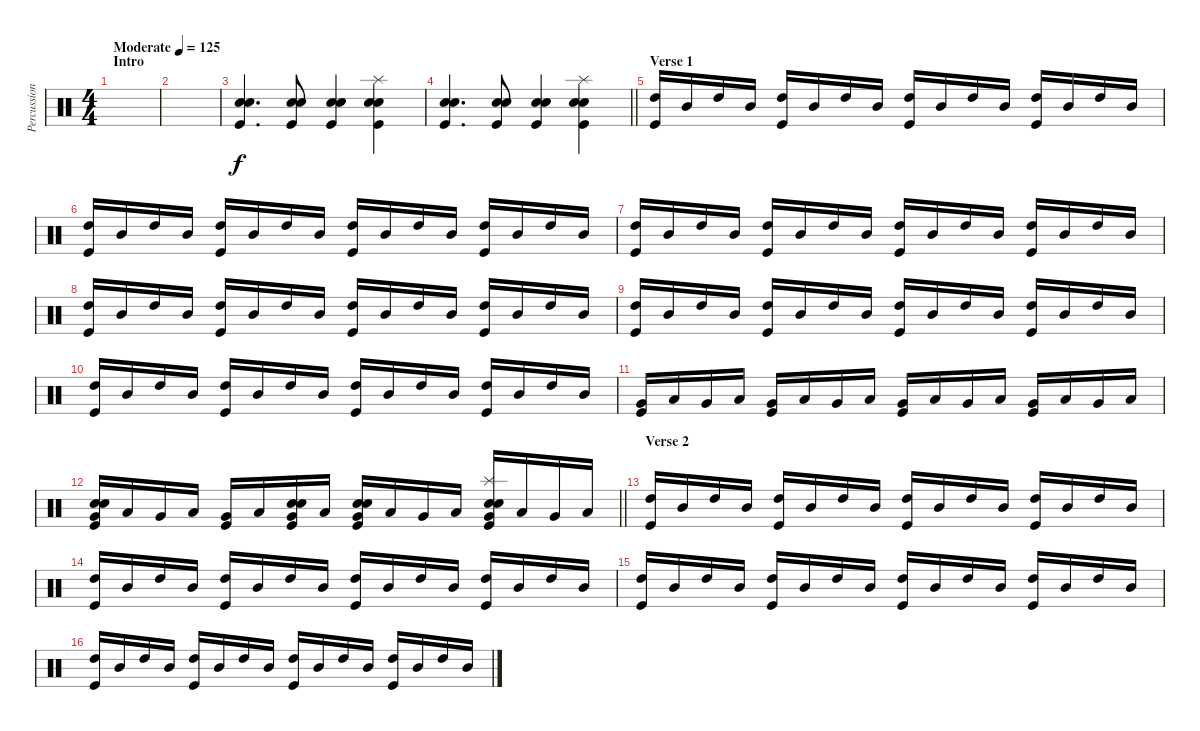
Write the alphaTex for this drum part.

\track ("Percussions" "Percussion") {instrument percussion}
\staff {score}
\articulation defaults
\ts (4 4)
\section ("" "Intro")
\tempo (125 "Moderate")
\clef neutral
\ks c
|
|
("Snare (hit) 2" "Electric Snare (hit)" "Kick (hit)").4{d} ("Snare (hit) 2" "Electric Snare (hit)" "Kick (hit)").8 ("Snare (hit) 2" "Electric Snare (hit)" "Kick (hit)").4 ("Snare (hit) 2" "Electric Snare (hit)" "Splash (hit)" "Kick (hit)").4 |
\barLineRight lightlight
("Snare (hit) 2" "Electric Snare (hit)" "Kick (hit)").4{d} ("Snare (hit) 2" "Electric Snare (hit)" "Kick (hit)").8 ("Snare (hit) 2" "Electric Snare (hit)" "Kick (hit)").4 ("Snare (hit) 2" "Electric Snare (hit)" "Splash (hit)" "Kick (hit)").4 |
\section ("" "Verse 1")
("High Tom (hit)" "Kick (hit)").16 "Mid Tom (hit)".16 "High Tom (hit)".16 "Mid Tom (hit)".16 ("High Tom (hit)" "Kick (hit)").16 "Mid Tom (hit)".16 "High Tom (hit)".16 "Mid Tom (hit)".16 ("High Tom (hit)" "Kick (hit)").16 "Mid Tom (hit)".16 "High Tom (hit)".16 "Mid Tom (hit)".16 ("High Tom (hit)" "Kick (hit)").16 "Mid Tom (hit)".16 "High Tom (hit)".16 "Mid Tom (hit)".16 |
("High Tom (hit)" "Kick (hit)").16 "Mid Tom (hit)".16 "High Tom (hit)".16 "Mid Tom (hit)".16 ("High Tom (hit)" "Kick (hit)").16 "Mid Tom (hit)".16 "High Tom (hit)".16 "Mid Tom (hit)".16 ("High Tom (hit)" "Kick (hit)").16 "Mid Tom (hit)".16 "High Tom (hit)".16 "Mid Tom (hit)".16 ("High Tom (hit)" "Kick (hit)").16 "Mid Tom (hit)".16 "High Tom (hit)".16 "Mid Tom (hit)".16 |
("High Tom (hit)" "Kick (hit)").16 "Mid Tom (hit)".16 "High Tom (hit)".16 "Mid Tom (hit)".16 ("High Tom (hit)" "Kick (hit)").16 "Mid Tom (hit)".16 "High Tom (hit)".16 "Mid Tom (hit)".16 ("High Tom (hit)" "Kick (hit)").16 "Mid Tom (hit)".16 "High Tom (hit)".16 "Mid Tom (hit)".16 ("High Tom (hit)" "Kick (hit)").16 "Mid Tom (hit)".16 "High Tom (hit)".16 "Mid Tom (hit)".16 |
("High Tom (hit)" "Kick (hit)").16 "Mid Tom (hit)".16 "High Tom (hit)".16 "Mid Tom (hit)".16 ("High Tom (hit)" "Kick (hit)").16 "Mid Tom (hit)".16 "High Tom (hit)".16 "Mid Tom (hit)".16 ("High Tom (hit)" "Kick (hit)").16 "Mid Tom (hit)".16 "High Tom (hit)".16 "Mid Tom (hit)".16 ("High Tom (hit)" "Kick (hit)").16 "Mid Tom (hit)".16 "High Tom (hit)".16 "Mid Tom (hit)".16 |
("High Tom (hit)" "Kick (hit)").16 "Mid Tom (hit)".16 "High Tom (hit)".16 "Mid Tom (hit)".16 ("High Tom (hit)" "Kick (hit)").16 "Mid Tom (hit)".16 "High Tom (hit)".16 "Mid Tom (hit)".16 ("High Tom (hit)" "Kick (hit)").16 "Mid Tom (hit)".16 "High Tom (hit)".16 "Mid Tom (hit)".16 ("High Tom (hit)" "Kick (hit)").16 "Mid Tom (hit)".16 "High Tom (hit)".16 "Mid Tom (hit)".16 |
("High Tom (hit)" "Kick (hit)").16 "Mid Tom (hit)".16 "High Tom (hit)".16 "Mid Tom (hit)".16 ("High Tom (hit)" "Kick (hit)").16 "Mid Tom (hit)".16 "High Tom (hit)".16 "Mid Tom (hit)".16 ("High Tom (hit)" "Kick (hit)").16 "Mid Tom (hit)".16 "High Tom (hit)".16 "Mid Tom (hit)".16 ("High Tom (hit)" "Kick (hit)").16 "Mid Tom (hit)".16 "High Tom (hit)".16 "Mid Tom (hit)".16 |
("Very Low Tom (hit)" "Kick (hit)").16 "Low Tom (hit)".16 "Very Low Tom (hit)".16 "Low Tom (hit)".16 ("Very Low Tom (hit)" "Kick (hit)").16 "Low Tom (hit)".16 "Very Low Tom (hit)".16 "Low Tom (hit)".16 ("Very Low Tom (hit)" "Kick (hit)").16 "Low Tom (hit)".16 "Very Low Tom (hit)".16 "Low Tom (hit)".16 ("Very Low Tom (hit)" "Kick (hit)").16 "Low Tom (hit)".16 "Very Low Tom (hit)".16 "Low Tom (hit)".16 |
\barLineRight lightlight
("Snare (hit) 2" "Electric Snare (hit)" "Very Low Tom (hit)" "Kick (hit)").16 "Low Tom (hit)".16 "Very Low Tom (hit)".16 "Low Tom (hit)".16 ("Very Low Tom (hit)" "Kick (hit)").16 "Low Tom (hit)".16 ("Snare (hit) 2" "Electric Snare (hit)" "Very Low Tom (hit)" "Kick (hit)").16 "Low Tom (hit)".16 ("Snare (hit) 2" "Electric Snare (hit)" "Very Low Tom (hit)" "Kick (hit)").16 "Low Tom (hit)".16 "Very Low Tom (hit)".16 "Low Tom (hit)".16 ("Snare (hit) 2" "Electric Snare (hit)" "Splash (hit)" "Very Low Tom (hit)" "Kick (hit)").16 "Low Tom (hit)".16 "Very Low Tom (hit)".16 "Low Tom (hit)".16 |
\section ("" "Verse 2")
("High Tom (hit)" "Kick (hit)").16 "Mid Tom (hit)".16 "High Tom (hit)".16 "Mid Tom (hit)".16 ("High Tom (hit)" "Kick (hit)").16 "Mid Tom (hit)".16 "High Tom (hit)".16 "Mid Tom (hit)".16 ("High Tom (hit)" "Kick (hit)").16 "Mid Tom (hit)".16 "High Tom (hit)".16 "Mid Tom (hit)".16 ("High Tom (hit)" "Kick (hit)").16 "Mid Tom (hit)".16 "High Tom (hit)".16 "Mid Tom (hit)".16 |
("High Tom (hit)" "Kick (hit)").16 "Mid Tom (hit)".16 "High Tom (hit)".16 "Mid Tom (hit)".16 ("High Tom (hit)" "Kick (hit)").16 "Mid Tom (hit)".16 "High Tom (hit)".16 "Mid Tom (hit)".16 ("High Tom (hit)" "Kick (hit)").16 "Mid Tom (hit)".16 "High Tom (hit)".16 "Mid Tom (hit)".16 ("High Tom (hit)" "Kick (hit)").16 "Mid Tom (hit)".16 "High Tom (hit)".16 "Mid Tom (hit)".16 |
("High Tom (hit)" "Kick (hit)").16 "Mid Tom (hit)".16 "High Tom (hit)".16 "Mid Tom (hit)".16 ("High Tom (hit)" "Kick (hit)").16 "Mid Tom (hit)".16 "High Tom (hit)".16 "Mid Tom (hit)".16 ("High Tom (hit)" "Kick (hit)").16 "Mid Tom (hit)".16 "High Tom (hit)".16 "Mid Tom (hit)".16 ("High Tom (hit)" "Kick (hit)").16 "Mid Tom (hit)".16 "High Tom (hit)".16 "Mid Tom (hit)".16 |
("High Tom (hit)" "Kick (hit)").16 "Mid Tom (hit)".16 "High Tom (hit)".16 "Mid Tom (hit)".16 ("High Tom (hit)" "Kick (hit)").16 "Mid Tom (hit)".16 "High Tom (hit)".16 "Mid Tom (hit)".16 ("High Tom (hit)" "Kick (hit)").16 "Mid Tom (hit)".16 "High Tom (hit)".16 "Mid Tom (hit)".16 ("High Tom (hit)" "Kick (hit)").16 "Mid Tom (hit)".16 "High Tom (hit)".16 "Mid Tom (hit)".16
